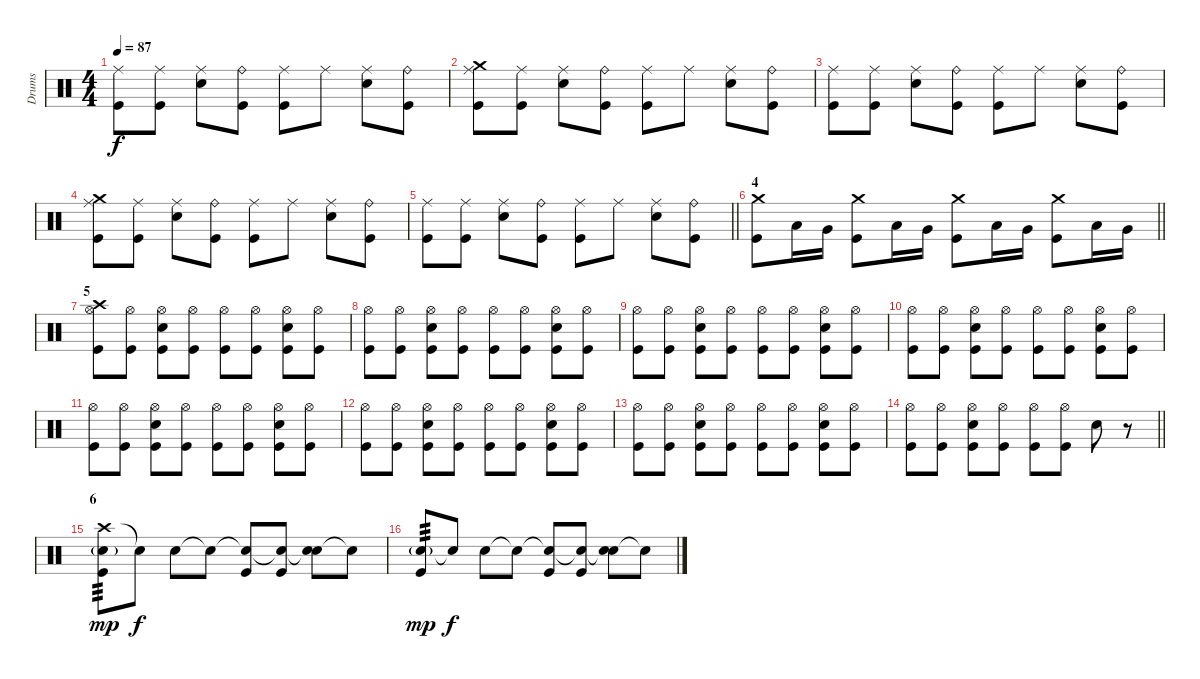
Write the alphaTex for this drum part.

\track ("Drums" "Drums") {instrument percussion}
\staff {score}
\articulation defaults
\ts (4 4)
\tempo 87
\clef neutral
\ks c
("Ride (middle)" "Kick (hit)").8{dy f} ("Ride (middle)" "Kick (hit)").8 ("Ride (middle)" "Electric Snare (hit)").8 ("Ride (bell)" "Kick (hit)").8 ("Ride (middle)" "Kick (hit)").8 "Ride (middle)".8 ("Ride (middle)" "Electric Snare (hit)").8 ("Ride (bell)" "Kick (hit)").8 |
("Crash medium (hit)" "Ride (middle)" "Kick (hit)").8 ("Ride (middle)" "Kick (hit)").8 ("Ride (middle)" "Electric Snare (hit)").8 ("Ride (bell)" "Kick (hit)").8 ("Ride (middle)" "Kick (hit)").8 "Ride (middle)".8 ("Ride (middle)" "Electric Snare (hit)").8 ("Ride (bell)" "Kick (hit)").8 |
("Ride (middle)" "Kick (hit)").8 ("Ride (middle)" "Kick (hit)").8 ("Ride (middle)" "Electric Snare (hit)").8 ("Ride (bell)" "Kick (hit)").8 ("Ride (middle)" "Kick (hit)").8 "Ride (middle)".8 ("Ride (middle)" "Electric Snare (hit)").8 ("Ride (bell)" "Kick (hit)").8 |
("Crash medium (hit)" "Ride (middle)" "Kick (hit)").8 ("Ride (middle)" "Kick (hit)").8 ("Ride (middle)" "Electric Snare (hit)").8 ("Ride (bell)" "Kick (hit)").8 ("Ride (middle)" "Kick (hit)").8 "Ride (middle)".8 ("Ride (middle)" "Electric Snare (hit)").8 ("Ride (bell)" "Kick (hit)").8 |
\barLineRight lightlight
("Ride (middle)" "Kick (hit)").8 ("Ride (middle)" "Kick (hit)").8 ("Ride (middle)" "Electric Snare (hit)").8 ("Ride (bell)" "Kick (hit)").8 ("Ride (middle)" "Kick (hit)").8 "Ride (middle)".8 ("Ride (middle)" "Electric Snare (hit)").8 ("Ride (bell)" "Kick (hit)").8 |
\section ("" "4")
\barLineRight lightlight
("Crash medium (hit)" "Kick (hit)").8 "Low Tom (hit)".16 "Very Low Tom (hit)".16 ("Crash medium (hit)" "Kick (hit)").8 "Low Tom (hit)".16 "Very Low Tom (hit)".16 ("Crash medium (hit)" "Kick (hit)").8 "Low Tom (hit)".16 "Very Low Tom (hit)".16 ("Crash medium (hit)" "Kick (hit)").8 "Low Tom (hit)".16 "Very Low Tom (hit)".16 |
\section ("" "5")
("Crash high (hit)" "Hi-Hat (open)" "Kick (hit)").8 ("Hi-Hat (open)" "Kick (hit)").8 ("Hi-Hat (open)" "Electric Snare (hit)" "Kick (hit)").8 ("Hi-Hat (open)" "Kick (hit)").8 ("Hi-Hat (open)" "Kick (hit)").8 ("Hi-Hat (open)" "Kick (hit)").8 ("Hi-Hat (open)" "Electric Snare (hit)" "Kick (hit)").8 ("Hi-Hat (open)" "Kick (hit)").8 |
("Hi-Hat (open)" "Kick (hit)").8 ("Hi-Hat (open)" "Kick (hit)").8 ("Hi-Hat (open)" "Electric Snare (hit)" "Kick (hit)").8 ("Hi-Hat (open)" "Kick (hit)").8 ("Hi-Hat (open)" "Kick (hit)").8 ("Hi-Hat (open)" "Kick (hit)").8 ("Hi-Hat (open)" "Electric Snare (hit)" "Kick (hit)").8 ("Hi-Hat (open)" "Kick (hit)").8 |
("Hi-Hat (open)" "Kick (hit)").8 ("Hi-Hat (open)" "Kick (hit)").8 ("Hi-Hat (open)" "Electric Snare (hit)" "Kick (hit)").8 ("Hi-Hat (open)" "Kick (hit)").8 ("Hi-Hat (open)" "Kick (hit)").8 ("Hi-Hat (open)" "Kick (hit)").8 ("Hi-Hat (open)" "Electric Snare (hit)" "Kick (hit)").8 ("Hi-Hat (open)" "Kick (hit)").8 |
("Hi-Hat (open)" "Kick (hit)").8 ("Hi-Hat (open)" "Kick (hit)").8 ("Hi-Hat (open)" "Electric Snare (hit)" "Kick (hit)").8 ("Hi-Hat (open)" "Kick (hit)").8 ("Hi-Hat (open)" "Kick (hit)").8 ("Hi-Hat (open)" "Kick (hit)").8 ("Hi-Hat (open)" "Electric Snare (hit)" "Kick (hit)").8 ("Hi-Hat (open)" "Kick (hit)").8 |
("Hi-Hat (open)" "Kick (hit)").8 ("Hi-Hat (open)" "Kick (hit)").8 ("Hi-Hat (open)" "Electric Snare (hit)" "Kick (hit)").8 ("Hi-Hat (open)" "Kick (hit)").8 ("Hi-Hat (open)" "Kick (hit)").8 ("Hi-Hat (open)" "Kick (hit)").8 ("Hi-Hat (open)" "Electric Snare (hit)" "Kick (hit)").8 ("Hi-Hat (open)" "Kick (hit)").8 |
("Hi-Hat (open)" "Kick (hit)").8 ("Hi-Hat (open)" "Kick (hit)").8 ("Hi-Hat (open)" "Electric Snare (hit)" "Kick (hit)").8 ("Hi-Hat (open)" "Kick (hit)").8 ("Hi-Hat (open)" "Kick (hit)").8 ("Hi-Hat (open)" "Kick (hit)").8 ("Hi-Hat (open)" "Electric Snare (hit)" "Kick (hit)").8 ("Hi-Hat (open)" "Kick (hit)").8 |
("Hi-Hat (open)" "Kick (hit)").8 ("Hi-Hat (open)" "Kick (hit)").8 ("Hi-Hat (open)" "Electric Snare (hit)" "Kick (hit)").8 ("Hi-Hat (open)" "Kick (hit)").8 ("Hi-Hat (open)" "Kick (hit)").8 ("Hi-Hat (open)" "Kick (hit)").8 ("Hi-Hat (open)" "Electric Snare (hit)" "Kick (hit)").8 ("Hi-Hat (open)" "Kick (hit)").8 |
\barLineRight lightlight
("Hi-Hat (open)" "Kick (hit)").8 ("Hi-Hat (open)" "Kick (hit)").8 ("Hi-Hat (open)" "Electric Snare (hit)" "Kick (hit)").8 ("Hi-Hat (open)" "Kick (hit)").8 ("Hi-Hat (open)" "Kick (hit)").8 ("Hi-Hat (open)" "Kick (hit)").8 "Electric Snare (hit)".8 r.8 |
\section ("" "6")
("Crash high (hit)" "Electric Snare (hit)"{g} "Kick (hit)").8{tp 3 dy mp} "Snare (hit)"{t}.8{dy f} "Electric Snare (hit)".8 "Snare (hit)"{t}.8 ("Snare (hit)"{t} "Kick (hit)").8 ("Snare (hit)"{t} "Kick (hit)").8 ("Snare (hit)"{t} "Electric Snare (hit)").8 "Snare (hit)"{t}.8 |
("Electric Snare (hit)"{g} "Kick (hit)").8{tp 3 dy mp} "Snare (hit)"{t}.8{dy f} "Electric Snare (hit)".8 "Snare (hit)"{t}.8 ("Snare (hit)"{t} "Kick (hit)").8 ("Snare (hit)"{t} "Kick (hit)").8 ("Snare (hit)"{t} "Electric Snare (hit)").8 "Snare (hit)"{t}.8
